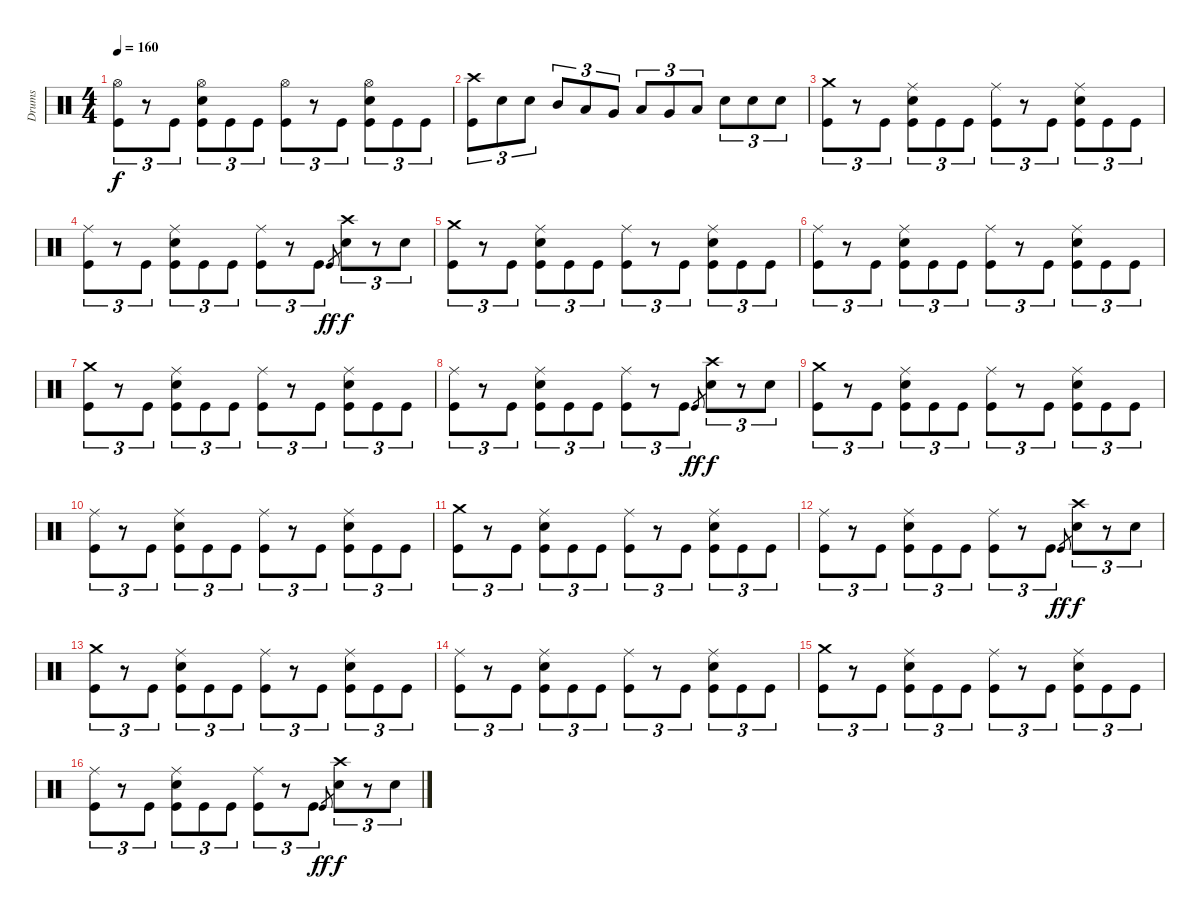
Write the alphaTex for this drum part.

\track ("Drums" "Drums") {instrument percussion}
\staff {score}
\articulation defaults
\ts (4 4)
\tempo 160
\clef neutral
\ks c
("Hi-Hat (open)" "Kick (hit)").8{tu (3 2) dy f} r.8{tu (3 2)} "Kick (hit)".8{tu (3 2)} ("Hi-Hat (open)" "Snare (hit) 2" "Kick (hit)").8{tu (3 2)} "Kick (hit)".8{tu (3 2)} "Kick (hit)".8{tu (3 2)} ("Hi-Hat (open)" "Kick (hit)").8{tu (3 2)} r.8{tu (3 2)} "Kick (hit)".8{tu (3 2)} ("Hi-Hat (open)" "Snare (hit) 2" "Kick (hit)").8{tu (3 2)} "Kick (hit)".8{tu (3 2)} "Kick (hit)".8{tu (3 2)} |
("Crash high (hit)" "Kick (hit)").8{tu (3 2)} "Snare (hit) 2".8{tu (3 2)} "Snare (hit) 2".8{tu (3 2)} "Mid Tom (hit)".8{tu (3 2)} "Low Tom (hit)".8{tu (3 2)} "Very Low Tom (hit)".8{tu (3 2)} "Low Tom (hit)".8{tu (3 2)} "Very Low Tom (hit)".8{tu (3 2)} "Low Floor Tom (hit)".8{tu (3 2)} "Snare (hit) 2".8{tu (3 2)} "Snare (hit) 2".8{tu (3 2)} "Snare (hit) 2".8{tu (3 2)} |
("Crash medium (hit)" "Kick (hit)").8{tu (3 2)} r.8{tu (3 2)} "Kick (hit)".8{tu (3 2)} ("Ride (middle)" "Snare (hit) 2" "Kick (hit)").8{tu (3 2)} "Kick (hit)".8{tu (3 2)} "Kick (hit)".8{tu (3 2)} ("Ride (middle)" "Kick (hit)").8{tu (3 2)} r.8{tu (3 2)} "Kick (hit)".8{tu (3 2)} ("Ride (middle)" "Snare (hit) 2" "Kick (hit)").8{tu (3 2)} "Kick (hit)".8{tu (3 2)} "Kick (hit)".8{tu (3 2)} |
("Ride (middle)" "Kick (hit)").8{tu (3 2)} r.8{tu (3 2)} "Kick (hit)".8{tu (3 2)} ("Ride (middle)" "Snare (hit) 2" "Kick (hit)").8{tu (3 2)} "Kick (hit)".8{tu (3 2)} "Kick (hit)".8{tu (3 2)} ("Ride (middle)" "Kick (hit)").8{tu (3 2)} r.8{tu (3 2)} "Kick (hit)".8{tu (3 2)} "Kick (hit)".8{gr dy ff} ("Crash high (hit)" "Snare (hit) 2").8{tu (3 2) dy f} r.8{tu (3 2)} "Snare (hit) 2".8{tu (3 2)} |
("Crash medium (hit)" "Kick (hit)").8{tu (3 2)} r.8{tu (3 2)} "Kick (hit)".8{tu (3 2)} ("Ride (middle)" "Snare (hit) 2" "Kick (hit)").8{tu (3 2)} "Kick (hit)".8{tu (3 2)} "Kick (hit)".8{tu (3 2)} ("Ride (middle)" "Kick (hit)").8{tu (3 2)} r.8{tu (3 2)} "Kick (hit)".8{tu (3 2)} ("Ride (middle)" "Snare (hit) 2" "Kick (hit)").8{tu (3 2)} "Kick (hit)".8{tu (3 2)} "Kick (hit)".8{tu (3 2)} |
("Ride (middle)" "Kick (hit)").8{tu (3 2)} r.8{tu (3 2)} "Kick (hit)".8{tu (3 2)} ("Ride (middle)" "Snare (hit) 2" "Kick (hit)").8{tu (3 2)} "Kick (hit)".8{tu (3 2)} "Kick (hit)".8{tu (3 2)} ("Ride (middle)" "Kick (hit)").8{tu (3 2)} r.8{tu (3 2)} "Kick (hit)".8{tu (3 2)} ("Ride (middle)" "Snare (hit) 2" "Kick (hit)").8{tu (3 2)} "Kick (hit)".8{tu (3 2)} "Kick (hit)".8{tu (3 2)} |
("Crash medium (hit)" "Kick (hit)").8{tu (3 2)} r.8{tu (3 2)} "Kick (hit)".8{tu (3 2)} ("Ride (middle)" "Snare (hit) 2" "Kick (hit)").8{tu (3 2)} "Kick (hit)".8{tu (3 2)} "Kick (hit)".8{tu (3 2)} ("Ride (middle)" "Kick (hit)").8{tu (3 2)} r.8{tu (3 2)} "Kick (hit)".8{tu (3 2)} ("Ride (middle)" "Snare (hit) 2" "Kick (hit)").8{tu (3 2)} "Kick (hit)".8{tu (3 2)} "Kick (hit)".8{tu (3 2)} |
("Ride (middle)" "Kick (hit)").8{tu (3 2)} r.8{tu (3 2)} "Kick (hit)".8{tu (3 2)} ("Ride (middle)" "Snare (hit) 2" "Kick (hit)").8{tu (3 2)} "Kick (hit)".8{tu (3 2)} "Kick (hit)".8{tu (3 2)} ("Ride (middle)" "Kick (hit)").8{tu (3 2)} r.8{tu (3 2)} "Kick (hit)".8{tu (3 2)} "Kick (hit)".8{gr dy ff} ("Crash high (hit)" "Snare (hit) 2").8{tu (3 2) dy f} r.8{tu (3 2)} "Snare (hit) 2".8{tu (3 2)} |
("Crash medium (hit)" "Kick (hit)").8{tu (3 2)} r.8{tu (3 2)} "Kick (hit)".8{tu (3 2)} ("Ride (middle)" "Snare (hit) 2" "Kick (hit)").8{tu (3 2)} "Kick (hit)".8{tu (3 2)} "Kick (hit)".8{tu (3 2)} ("Ride (middle)" "Kick (hit)").8{tu (3 2)} r.8{tu (3 2)} "Kick (hit)".8{tu (3 2)} ("Ride (middle)" "Snare (hit) 2" "Kick (hit)").8{tu (3 2)} "Kick (hit)".8{tu (3 2)} "Kick (hit)".8{tu (3 2)} |
("Ride (middle)" "Kick (hit)").8{tu (3 2)} r.8{tu (3 2)} "Kick (hit)".8{tu (3 2)} ("Ride (middle)" "Snare (hit) 2" "Kick (hit)").8{tu (3 2)} "Kick (hit)".8{tu (3 2)} "Kick (hit)".8{tu (3 2)} ("Ride (middle)" "Kick (hit)").8{tu (3 2)} r.8{tu (3 2)} "Kick (hit)".8{tu (3 2)} ("Ride (middle)" "Snare (hit) 2" "Kick (hit)").8{tu (3 2)} "Kick (hit)".8{tu (3 2)} "Kick (hit)".8{tu (3 2)} |
("Crash medium (hit)" "Kick (hit)").8{tu (3 2)} r.8{tu (3 2)} "Kick (hit)".8{tu (3 2)} ("Ride (middle)" "Snare (hit) 2" "Kick (hit)").8{tu (3 2)} "Kick (hit)".8{tu (3 2)} "Kick (hit)".8{tu (3 2)} ("Ride (middle)" "Kick (hit)").8{tu (3 2)} r.8{tu (3 2)} "Kick (hit)".8{tu (3 2)} ("Ride (middle)" "Snare (hit) 2" "Kick (hit)").8{tu (3 2)} "Kick (hit)".8{tu (3 2)} "Kick (hit)".8{tu (3 2)} |
("Ride (middle)" "Kick (hit)").8{tu (3 2)} r.8{tu (3 2)} "Kick (hit)".8{tu (3 2)} ("Ride (middle)" "Snare (hit) 2" "Kick (hit)").8{tu (3 2)} "Kick (hit)".8{tu (3 2)} "Kick (hit)".8{tu (3 2)} ("Ride (middle)" "Kick (hit)").8{tu (3 2)} r.8{tu (3 2)} "Kick (hit)".8{tu (3 2)} "Kick (hit)".8{gr dy ff} ("Crash high (hit)" "Snare (hit) 2").8{tu (3 2) dy f} r.8{tu (3 2)} "Snare (hit) 2".8{tu (3 2)} |
("Crash medium (hit)" "Kick (hit)").8{tu (3 2)} r.8{tu (3 2)} "Kick (hit)".8{tu (3 2)} ("Ride (middle)" "Snare (hit) 2" "Kick (hit)").8{tu (3 2)} "Kick (hit)".8{tu (3 2)} "Kick (hit)".8{tu (3 2)} ("Ride (middle)" "Kick (hit)").8{tu (3 2)} r.8{tu (3 2)} "Kick (hit)".8{tu (3 2)} ("Ride (middle)" "Snare (hit) 2" "Kick (hit)").8{tu (3 2)} "Kick (hit)".8{tu (3 2)} "Kick (hit)".8{tu (3 2)} |
("Ride (middle)" "Kick (hit)").8{tu (3 2)} r.8{tu (3 2)} "Kick (hit)".8{tu (3 2)} ("Ride (middle)" "Snare (hit) 2" "Kick (hit)").8{tu (3 2)} "Kick (hit)".8{tu (3 2)} "Kick (hit)".8{tu (3 2)} ("Ride (middle)" "Kick (hit)").8{tu (3 2)} r.8{tu (3 2)} "Kick (hit)".8{tu (3 2)} ("Ride (middle)" "Snare (hit) 2" "Kick (hit)").8{tu (3 2)} "Kick (hit)".8{tu (3 2)} "Kick (hit)".8{tu (3 2)} |
("Crash medium (hit)" "Kick (hit)").8{tu (3 2)} r.8{tu (3 2)} "Kick (hit)".8{tu (3 2)} ("Ride (middle)" "Snare (hit) 2" "Kick (hit)").8{tu (3 2)} "Kick (hit)".8{tu (3 2)} "Kick (hit)".8{tu (3 2)} ("Ride (middle)" "Kick (hit)").8{tu (3 2)} r.8{tu (3 2)} "Kick (hit)".8{tu (3 2)} ("Ride (middle)" "Snare (hit) 2" "Kick (hit)").8{tu (3 2)} "Kick (hit)".8{tu (3 2)} "Kick (hit)".8{tu (3 2)} |
("Ride (middle)" "Kick (hit)").8{tu (3 2)} r.8{tu (3 2)} "Kick (hit)".8{tu (3 2)} ("Ride (middle)" "Snare (hit) 2" "Kick (hit)").8{tu (3 2)} "Kick (hit)".8{tu (3 2)} "Kick (hit)".8{tu (3 2)} ("Ride (middle)" "Kick (hit)").8{tu (3 2)} r.8{tu (3 2)} "Kick (hit)".8{tu (3 2)} "Kick (hit)".8{gr dy ff} ("Crash high (hit)" "Snare (hit) 2").8{tu (3 2) dy f} r.8{tu (3 2)} "Snare (hit) 2".8{tu (3 2)}
